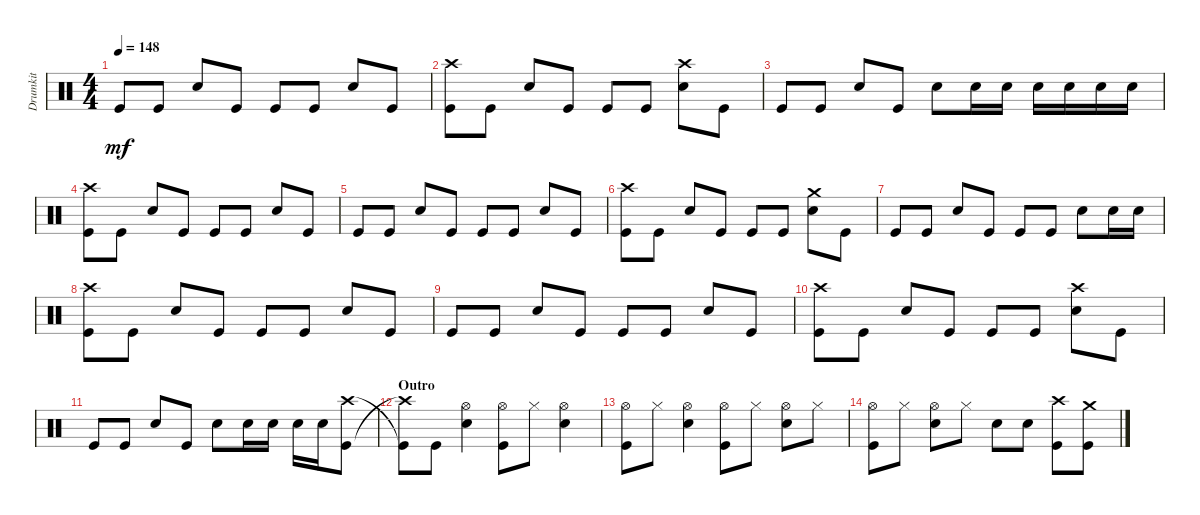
\track ("Drumkit" "Drumkit") {instrument percussion}
\staff {score}
\articulation defaults
\ts (4 4)
\tempo 148
\clef neutral
\ks c "Kick (hit)".8{dy mf} "Kick (hit)".8 "Snare (hit) 2".8 "Kick (hit)".8 "Kick (hit)".8 "Kick (hit)".8 "Snare (hit) 2".8 "Kick (hit)".8
|
("Kick (hit)" "Crash high (hit)").8 "Kick (hit)".8 "Snare (hit) 2".8 "Kick (hit)".8 "Kick (hit)".8 "Kick (hit)".8 ("Snare (hit) 2" "Crash high (hit)").8 "Kick (hit)".8 |
"Kick (hit)".8 "Kick (hit)".8 "Snare (hit) 2".8 "Kick (hit)".8 "Snare (hit) 2".8 "Snare (hit) 2".16 "Snare (hit) 2".16 "Snare (hit) 2".16 "Snare (hit) 2".16 "Snare (hit) 2".16 "Snare (hit) 2".16 |
("Kick (hit)" "Crash high (hit)").8 "Kick (hit)".8 "Snare (hit) 2".8 "Kick (hit)".8 "Kick (hit)".8 "Kick (hit)".8 "Snare (hit) 2".8 "Kick (hit)".8 |
"Kick (hit)".8 "Kick (hit)".8 "Snare (hit) 2".8 "Kick (hit)".8 "Kick (hit)".8 "Kick (hit)".8 "Snare (hit) 2".8 "Kick (hit)".8 |
("Kick (hit)" "Crash high (hit)").8 "Kick (hit)".8 "Snare (hit) 2".8 "Kick (hit)".8 "Kick (hit)".8 "Kick (hit)".8 ("Snare (hit) 2" "Crash medium (hit)").8 "Kick (hit)".8 |
"Kick (hit)".8 "Kick (hit)".8 "Snare (hit) 2".8 "Kick (hit)".8 "Kick (hit)".8 "Kick (hit)".8 "Snare (hit) 2".8 "Snare (hit) 2".16 "Snare (hit) 2".16 |
("Kick (hit)" "Crash high (hit)").8 "Kick (hit)".8 "Snare (hit) 2".8 "Kick (hit)".8 "Kick (hit)".8 "Kick (hit)".8 "Snare (hit) 2".8 "Kick (hit)".8 |
"Kick (hit)".8 "Kick (hit)".8 "Snare (hit) 2".8 "Kick (hit)".8 "Kick (hit)".8 "Kick (hit)".8 "Snare (hit) 2".8 "Kick (hit)".8 |
("Kick (hit)" "Crash high (hit)").8 "Kick (hit)".8 "Snare (hit) 2".8 "Kick (hit)".8 "Kick (hit)".8 "Kick (hit)".8 ("Snare (hit) 2" "Crash high (hit)").8 "Kick (hit)".8 |
"Kick (hit)".8 "Kick (hit)".8 "Snare (hit) 2".8 "Kick (hit)".8 "Snare (hit) 2".8 "Snare (hit) 2".16 "Snare (hit) 2".16 "Snare (hit) 2".16 "Snare (hit) 2".16 ("Crash high (hit)" "Kick (hit)").8 |
\section ("" "Outro")
("Kick (hit)"{t} "Crash high (hit)"{t}).8 "Kick (hit)".8 ("Snare (hit) 2" "Hi-Hat (open)").4 ("Kick (hit)" "Hi-Hat (open)").8 "Hi-Hat (closed)".8 ("Snare (hit) 2" "Hi-Hat (open)").4 |
("Kick (hit)" "Hi-Hat (open)").8 "Hi-Hat (closed)".8 ("Snare (hit) 2" "Hi-Hat (open)").4 ("Kick (hit)" "Hi-Hat (open)").8 "Hi-Hat (closed)".8 ("Snare (hit) 2" "Hi-Hat (open)").8 "Hi-Hat (closed)".8 |
("Kick (hit)" "Hi-Hat (open)").8 "Hi-Hat (closed)".8 ("Snare (hit) 2" "Hi-Hat (open)").8 "Hi-Hat (closed)".8 "Snare (hit) 2".8 "Snare (hit) 2".8 ("Crash high (hit)" "Kick (hit)").8 ("Crash medium (hit)" "Kick (hit)").8
